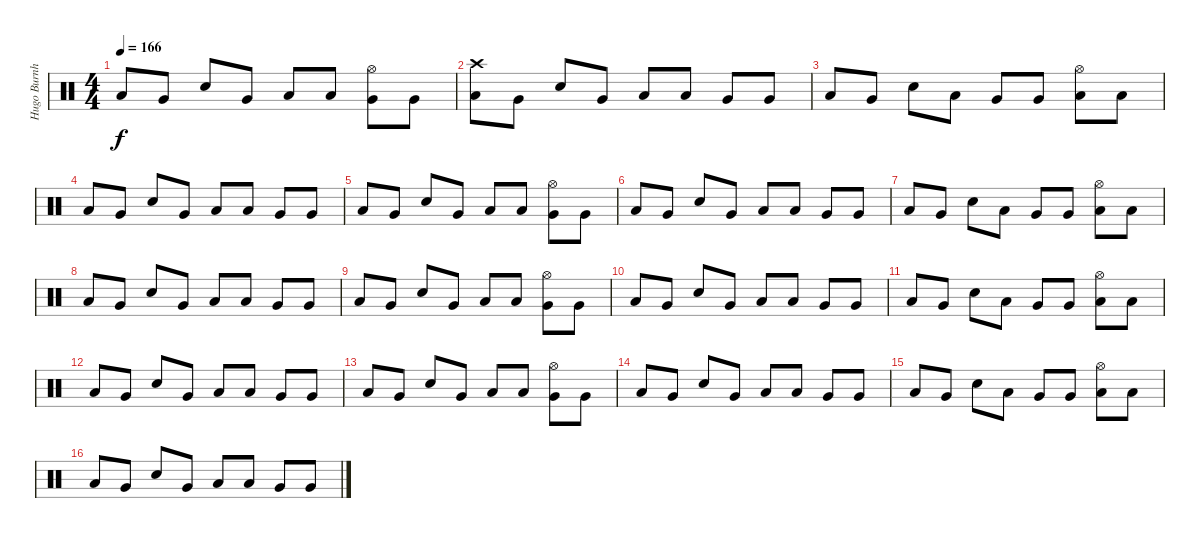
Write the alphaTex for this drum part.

\track ("Hugo Burnham" "Hugo Burnh") {instrument percussion}
\staff {score}
\articulation defaults
\ts (4 4)
\tempo 166
\clef neutral
\ks c "Low Tom (hit)".8{dy f} "Very Low Tom (hit)".8 "Electric Snare (hit)".8 "Very Low Tom (hit)".8 "Low Tom (hit)".8 "Low Tom (hit)".8
("Hi-Hat (open)" "Very Low Tom (hit)").8 "Very Low Tom (hit)".8 |
("Crash high (hit)" "Low Tom (hit)").8 "Very Low Tom (hit)".8 "Electric Snare (hit)".8 "Very Low Tom (hit)".8 "Low Tom (hit)".8 "Low Tom (hit)".8 "Very Low Tom (hit)".8 "Very Low Tom (hit)".8 |
"Low Tom (hit)".8 "Very Low Tom (hit)".8 "Electric Snare (hit)".8 "Low Tom (hit)".8 "Very Low Tom (hit)".8 "Very Low Tom (hit)".8 ("Hi-Hat (open)" "Low Tom (hit)").8 "Low Tom (hit)".8 |
"Low Tom (hit)".8 "Very Low Tom (hit)".8 "Electric Snare (hit)".8 "Very Low Tom (hit)".8 "Low Tom (hit)".8 "Low Tom (hit)".8 "Very Low Tom (hit)".8 "Very Low Tom (hit)".8 |
"Low Tom (hit)".8 "Very Low Tom (hit)".8 "Electric Snare (hit)".8 "Very Low Tom (hit)".8 "Low Tom (hit)".8 "Low Tom (hit)".8 ("Hi-Hat (open)" "Very Low Tom (hit)").8 "Very Low Tom (hit)".8 |
"Low Tom (hit)".8 "Very Low Tom (hit)".8 "Electric Snare (hit)".8 "Very Low Tom (hit)".8 "Low Tom (hit)".8 "Low Tom (hit)".8 "Very Low Tom (hit)".8 "Very Low Tom (hit)".8 |
"Low Tom (hit)".8 "Very Low Tom (hit)".8 "Electric Snare (hit)".8 "Low Tom (hit)".8 "Very Low Tom (hit)".8 "Very Low Tom (hit)".8 ("Hi-Hat (open)" "Low Tom (hit)").8 "Low Tom (hit)".8 |
"Low Tom (hit)".8 "Very Low Tom (hit)".8 "Electric Snare (hit)".8 "Very Low Tom (hit)".8 "Low Tom (hit)".8 "Low Tom (hit)".8 "Very Low Tom (hit)".8 "Very Low Tom (hit)".8 |
"Low Tom (hit)".8 "Very Low Tom (hit)".8 "Electric Snare (hit)".8 "Very Low Tom (hit)".8 "Low Tom (hit)".8 "Low Tom (hit)".8 ("Hi-Hat (open)" "Very Low Tom (hit)").8 "Very Low Tom (hit)".8 |
"Low Tom (hit)".8 "Very Low Tom (hit)".8 "Electric Snare (hit)".8 "Very Low Tom (hit)".8 "Low Tom (hit)".8 "Low Tom (hit)".8 "Very Low Tom (hit)".8 "Very Low Tom (hit)".8 |
"Low Tom (hit)".8 "Very Low Tom (hit)".8 "Electric Snare (hit)".8 "Low Tom (hit)".8 "Very Low Tom (hit)".8 "Very Low Tom (hit)".8 ("Hi-Hat (open)" "Low Tom (hit)").8 "Low Tom (hit)".8 |
"Low Tom (hit)".8 "Very Low Tom (hit)".8 "Electric Snare (hit)".8 "Very Low Tom (hit)".8 "Low Tom (hit)".8 "Low Tom (hit)".8 "Very Low Tom (hit)".8 "Very Low Tom (hit)".8 |
"Low Tom (hit)".8 "Very Low Tom (hit)".8 "Electric Snare (hit)".8 "Very Low Tom (hit)".8 "Low Tom (hit)".8 "Low Tom (hit)".8 ("Hi-Hat (open)" "Very Low Tom (hit)").8 "Very Low Tom (hit)".8 |
"Low Tom (hit)".8 "Very Low Tom (hit)".8 "Electric Snare (hit)".8 "Very Low Tom (hit)".8 "Low Tom (hit)".8 "Low Tom (hit)".8 "Very Low Tom (hit)".8 "Very Low Tom (hit)".8 |
"Low Tom (hit)".8 "Very Low Tom (hit)".8 "Electric Snare (hit)".8 "Low Tom (hit)".8 "Very Low Tom (hit)".8 "Very Low Tom (hit)".8 ("Hi-Hat (open)" "Low Tom (hit)").8 "Low Tom (hit)".8 |
"Low Tom (hit)".8 "Very Low Tom (hit)".8 "Electric Snare (hit)".8 "Very Low Tom (hit)".8 "Low Tom (hit)".8 "Low Tom (hit)".8 "Very Low Tom (hit)".8 "Very Low Tom (hit)".8
